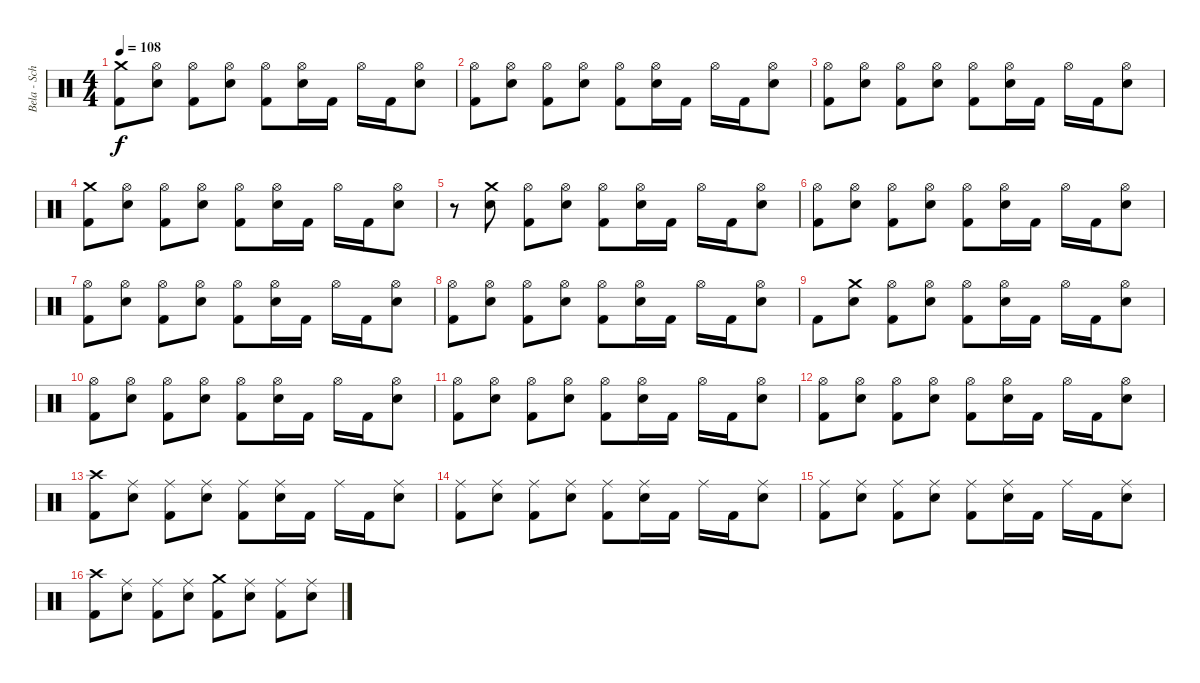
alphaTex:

\track ("Bela - Schlagzeug" "Bela - Sch") {instrument percussion}
\staff {score}
\articulation defaults
\ts (4 4)
\tempo 108
\clef neutral
\ks c
("Crash medium (hit)" "Kick (hit) 2").8{dy f} ("Hi-Hat (open)" "Snare (hit) 2").8 ("Hi-Hat (open)" "Kick (hit) 2").8 ("Hi-Hat (open)" "Snare (hit) 2").8 ("Hi-Hat (open)" "Kick (hit) 2").8 ("Hi-Hat (open)" "Snare (hit) 2").16 "Kick (hit) 2".16 "Hi-Hat (open)".16 "Kick (hit) 2".16 ("Hi-Hat (open)" "Snare (hit) 2").8 |
("Hi-Hat (open)" "Kick (hit) 2").8 ("Hi-Hat (open)" "Snare (hit) 2").8 ("Hi-Hat (open)" "Kick (hit) 2").8 ("Hi-Hat (open)" "Snare (hit) 2").8 ("Hi-Hat (open)" "Kick (hit) 2").8 ("Hi-Hat (open)" "Snare (hit) 2").16 "Kick (hit) 2".16 "Hi-Hat (open)".16 "Kick (hit) 2".16 ("Hi-Hat (open)" "Snare (hit) 2").8 |
("Hi-Hat (open)" "Kick (hit) 2").8 ("Hi-Hat (open)" "Snare (hit) 2").8 ("Hi-Hat (open)" "Kick (hit) 2").8 ("Hi-Hat (open)" "Snare (hit) 2").8 ("Hi-Hat (open)" "Kick (hit) 2").8 ("Hi-Hat (open)" "Snare (hit) 2").16 "Kick (hit) 2".16 "Hi-Hat (open)".16 "Kick (hit) 2".16 ("Hi-Hat (open)" "Snare (hit) 2").8 |
("Crash medium (hit)" "Kick (hit) 2").8 ("Hi-Hat (open)" "Snare (hit) 2").8 ("Hi-Hat (open)" "Kick (hit) 2").8 ("Hi-Hat (open)" "Snare (hit) 2").8 ("Hi-Hat (open)" "Kick (hit) 2").8 ("Hi-Hat (open)" "Snare (hit) 2").16 "Kick (hit) 2".16 "Hi-Hat (open)".16 "Kick (hit) 2".16 ("Hi-Hat (open)" "Snare (hit) 2").8 |
r.8 ("Crash medium (hit)" "Snare (hit) 2").8 ("Hi-Hat (open)" "Kick (hit) 2").8 ("Hi-Hat (open)" "Snare (hit) 2").8 ("Hi-Hat (open)" "Kick (hit) 2").8 ("Hi-Hat (open)" "Snare (hit) 2").16 "Kick (hit) 2".16 "Hi-Hat (open)".16 "Kick (hit) 2".16 ("Hi-Hat (open)" "Snare (hit) 2").8 |
("Hi-Hat (open)" "Kick (hit) 2").8 ("Hi-Hat (open)" "Snare (hit) 2").8 ("Hi-Hat (open)" "Kick (hit) 2").8 ("Hi-Hat (open)" "Snare (hit) 2").8 ("Hi-Hat (open)" "Kick (hit) 2").8 ("Hi-Hat (open)" "Snare (hit) 2").16 "Kick (hit) 2".16 "Hi-Hat (open)".16 "Kick (hit) 2".16 ("Hi-Hat (open)" "Snare (hit) 2").8 |
("Hi-Hat (open)" "Kick (hit) 2").8 ("Hi-Hat (open)" "Snare (hit) 2").8 ("Hi-Hat (open)" "Kick (hit) 2").8 ("Hi-Hat (open)" "Snare (hit) 2").8 ("Hi-Hat (open)" "Kick (hit) 2").8 ("Hi-Hat (open)" "Snare (hit) 2").16 "Kick (hit) 2".16 "Hi-Hat (open)".16 "Kick (hit) 2".16 ("Hi-Hat (open)" "Snare (hit) 2").8 |
("Hi-Hat (open)" "Kick (hit) 2").8 ("Hi-Hat (open)" "Snare (hit) 2").8 ("Hi-Hat (open)" "Kick (hit) 2").8 ("Hi-Hat (open)" "Snare (hit) 2").8 ("Hi-Hat (open)" "Kick (hit) 2").8 ("Hi-Hat (open)" "Snare (hit) 2").16 "Kick (hit) 2".16 "Hi-Hat (open)".16 "Kick (hit) 2".16 ("Hi-Hat (open)" "Snare (hit) 2").8 |
"Kick (hit) 2".8 ("Crash medium (hit)" "Snare (hit) 2").8 ("Hi-Hat (open)" "Kick (hit) 2").8 ("Hi-Hat (open)" "Snare (hit) 2").8 ("Hi-Hat (open)" "Kick (hit) 2").8 ("Hi-Hat (open)" "Snare (hit) 2").16 "Kick (hit) 2".16 "Hi-Hat (open)".16 "Kick (hit) 2".16 ("Hi-Hat (open)" "Snare (hit) 2").8 |
("Hi-Hat (open)" "Kick (hit) 2").8 ("Hi-Hat (open)" "Snare (hit) 2").8 ("Hi-Hat (open)" "Kick (hit) 2").8 ("Hi-Hat (open)" "Snare (hit) 2").8 ("Hi-Hat (open)" "Kick (hit) 2").8 ("Hi-Hat (open)" "Snare (hit) 2").16 "Kick (hit) 2".16 "Hi-Hat (open)".16 "Kick (hit) 2".16 ("Hi-Hat (open)" "Snare (hit) 2").8 |
("Hi-Hat (open)" "Kick (hit) 2").8 ("Hi-Hat (open)" "Snare (hit) 2").8 ("Hi-Hat (open)" "Kick (hit) 2").8 ("Hi-Hat (open)" "Snare (hit) 2").8 ("Hi-Hat (open)" "Kick (hit) 2").8 ("Hi-Hat (open)" "Snare (hit) 2").16 "Kick (hit) 2".16 "Hi-Hat (open)".16 "Kick (hit) 2".16 ("Hi-Hat (open)" "Snare (hit) 2").8 |
("Hi-Hat (open)" "Kick (hit) 2").8 ("Hi-Hat (open)" "Snare (hit) 2").8 ("Hi-Hat (open)" "Kick (hit) 2").8 ("Hi-Hat (open)" "Snare (hit) 2").8 ("Hi-Hat (open)" "Kick (hit) 2").8 ("Hi-Hat (open)" "Snare (hit) 2").16 "Kick (hit) 2".16 "Hi-Hat (open)".16 "Kick (hit) 2".16 ("Hi-Hat (open)" "Snare (hit) 2").8 |
("Crash high (hit)" "Kick (hit) 2").8 ("Ride (middle)" "Snare (hit) 2").8 ("Ride (middle)" "Kick (hit) 2").8 ("Ride (middle)" "Snare (hit) 2").8 ("Ride (middle)" "Kick (hit) 2").8 ("Ride (middle)" "Snare (hit) 2").16 "Kick (hit) 2".16 "Ride (middle)".16 "Kick (hit) 2".16 ("Ride (middle)" "Snare (hit) 2").8 |
("Ride (middle)" "Kick (hit) 2").8 ("Ride (middle)" "Snare (hit) 2").8 ("Ride (middle)" "Kick (hit) 2").8 ("Ride (middle)" "Snare (hit) 2").8 ("Ride (middle)" "Kick (hit) 2").8 ("Ride (middle)" "Snare (hit) 2").16 "Kick (hit) 2".16 "Ride (middle)".16 "Kick (hit) 2".16 ("Ride (middle)" "Snare (hit) 2").8 |
("Ride (middle)" "Kick (hit) 2").8 ("Ride (middle)" "Snare (hit) 2").8 ("Ride (middle)" "Kick (hit) 2").8 ("Ride (middle)" "Snare (hit) 2").8 ("Ride (middle)" "Kick (hit) 2").8 ("Ride (middle)" "Snare (hit) 2").16 "Kick (hit) 2".16 "Ride (middle)".16 "Kick (hit) 2".16 ("Ride (middle)" "Snare (hit) 2").8 |
("Crash high (hit)" "Kick (hit) 2").8 ("Ride (middle)" "Snare (hit) 2").8 ("Ride (middle)" "Kick (hit) 2").8 ("Ride (middle)" "Snare (hit) 2").8 ("Crash medium (hit)" "Kick (hit) 2").8 ("Ride (middle)" "Snare (hit) 2").8 ("Ride (middle)" "Kick (hit) 2").8 ("Ride (middle)" "Snare (hit) 2").8
